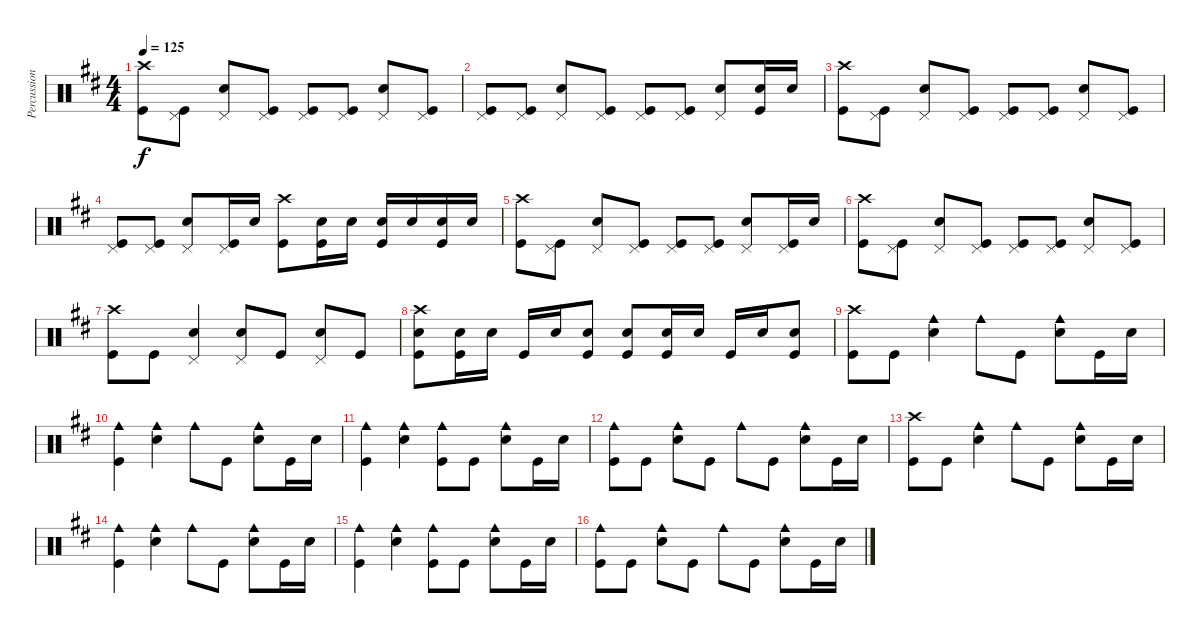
\track ("Percussion" "Percussion") {instrument percussion}
\staff {score}
\articulation defaults
\ts (4 4)
\tempo 125
\clef neutral
\ks d
("Crash high (hit)" "Kick (hit)").8{dy f} ("Pedal Hi-Hat (hit)" "Kick (hit)").8 ("Pedal Hi-Hat (hit)" "Snare (hit) 2").8 ("Pedal Hi-Hat (hit)" "Kick (hit)").8 ("Pedal Hi-Hat (hit)" "Kick (hit)").8 ("Pedal Hi-Hat (hit)" "Kick (hit)").8 ("Pedal Hi-Hat (hit)" "Snare (hit) 2").8 ("Pedal Hi-Hat (hit)" "Kick (hit)").8 |
("Pedal Hi-Hat (hit)" "Kick (hit)").8 ("Pedal Hi-Hat (hit)" "Kick (hit)").8 ("Pedal Hi-Hat (hit)" "Snare (hit) 2").8 ("Pedal Hi-Hat (hit)" "Kick (hit)").8 ("Pedal Hi-Hat (hit)" "Kick (hit)").8 ("Pedal Hi-Hat (hit)" "Kick (hit)").8 ("Pedal Hi-Hat (hit)" "Snare (hit) 2").8 ("Snare (hit) 2" "Kick (hit)").16 "Snare (hit) 2".16 |
("Crash high (hit)" "Kick (hit)").8 ("Pedal Hi-Hat (hit)" "Kick (hit)").8 ("Pedal Hi-Hat (hit)" "Snare (hit) 2").8 ("Pedal Hi-Hat (hit)" "Kick (hit)").8 ("Pedal Hi-Hat (hit)" "Kick (hit)").8 ("Pedal Hi-Hat (hit)" "Kick (hit)").8 ("Pedal Hi-Hat (hit)" "Snare (hit) 2").8 ("Pedal Hi-Hat (hit)" "Kick (hit)").8 |
("Pedal Hi-Hat (hit)" "Kick (hit)").8 ("Pedal Hi-Hat (hit)" "Kick (hit)").8 ("Pedal Hi-Hat (hit)" "Snare (hit) 2").8 ("Pedal Hi-Hat (hit)" "Kick (hit)").16 "Snare (hit) 2".16 ("Crash high (hit)" "Kick (hit)").8 ("Snare (hit) 2" "Kick (hit)").16 "Snare (hit) 2".16 ("Snare (hit) 2" "Kick (hit)").16 "Snare (hit) 2".16 ("Snare (hit) 2" "Kick (hit)").16 "Snare (hit) 2".16 |
("Crash high (hit)" "Kick (hit)").8 ("Pedal Hi-Hat (hit)" "Kick (hit)").8 ("Pedal Hi-Hat (hit)" "Snare (hit) 2").8 ("Pedal Hi-Hat (hit)" "Kick (hit)").8 ("Pedal Hi-Hat (hit)" "Kick (hit)").8 ("Pedal Hi-Hat (hit)" "Kick (hit)").8 ("Pedal Hi-Hat (hit)" "Snare (hit) 2").8 ("Pedal Hi-Hat (hit)" "Kick (hit)").16 "Snare (hit) 2".16 |
("Crash high (hit)" "Kick (hit)").8 ("Pedal Hi-Hat (hit)" "Kick (hit)").8 ("Pedal Hi-Hat (hit)" "Snare (hit) 2").8 ("Pedal Hi-Hat (hit)" "Kick (hit)").8 ("Pedal Hi-Hat (hit)" "Kick (hit)").8 ("Pedal Hi-Hat (hit)" "Kick (hit)").8 ("Pedal Hi-Hat (hit)" "Snare (hit) 2").8 ("Pedal Hi-Hat (hit)" "Kick (hit)").8 |
("Crash high (hit)" "Kick (hit)").8 "Kick (hit)".8 ("Pedal Hi-Hat (hit)" "Snare (hit) 2").4 ("Pedal Hi-Hat (hit)" "Snare (hit) 2").8 "Kick (hit)".8 ("Pedal Hi-Hat (hit)" "Snare (hit) 2").8 "Kick (hit)".8 |
("Crash high (hit)" "Snare (hit) 2" "Kick (hit)").8 ("Snare (hit) 2" "Kick (hit)").16 "Snare (hit) 2".16 "Kick (hit)".16 "Snare (hit) 2".16 ("Snare (hit) 2" "Kick (hit)").8 ("Snare (hit) 2" "Kick (hit)").8 ("Snare (hit) 2" "Kick (hit)").16 "Snare (hit) 2".16 "Kick (hit)".16 "Snare (hit) 2".16 ("Snare (hit) 2" "Kick (hit)").8 |
("Crash high (hit)" "Kick (hit)").8 "Kick (hit)".8 ("Cowbell medium (hit)" "Snare (hit) 2").4 "Cowbell medium (hit)".8 "Kick (hit)".8 ("Cowbell medium (hit)" "Snare (hit) 2").8 "Kick (hit)".16 "Snare (hit) 2".16 |
("Cowbell medium (hit)" "Kick (hit)").4 ("Cowbell medium (hit)" "Snare (hit) 2").4 "Cowbell medium (hit)".8 "Kick (hit)".8 ("Cowbell medium (hit)" "Snare (hit) 2").8 "Kick (hit)".16 "Snare (hit) 2".16 |
("Cowbell medium (hit)" "Kick (hit)").4 ("Cowbell medium (hit)" "Snare (hit) 2").4 ("Cowbell medium (hit)" "Kick (hit)").8 "Kick (hit)".8 ("Cowbell medium (hit)" "Snare (hit) 2").8 "Kick (hit)".16 "Snare (hit) 2".16 |
("Cowbell medium (hit)" "Kick (hit)").8 "Kick (hit)".8 ("Cowbell medium (hit)" "Snare (hit) 2").8 "Kick (hit)".8 "Cowbell medium (hit)".8 "Kick (hit)".8 ("Cowbell medium (hit)" "Snare (hit) 2").8 "Kick (hit)".16 "Snare (hit) 2".16 |
("Crash high (hit)" "Kick (hit)").8 "Kick (hit)".8 ("Cowbell medium (hit)" "Snare (hit) 2").4 "Cowbell medium (hit)".8 "Kick (hit)".8 ("Cowbell medium (hit)" "Snare (hit) 2").8 "Kick (hit)".16 "Snare (hit) 2".16 |
("Cowbell medium (hit)" "Kick (hit)").4 ("Cowbell medium (hit)" "Snare (hit) 2").4 "Cowbell medium (hit)".8 "Kick (hit)".8 ("Cowbell medium (hit)" "Snare (hit) 2").8 "Kick (hit)".16 "Snare (hit) 2".16 |
("Cowbell medium (hit)" "Kick (hit)").4 ("Cowbell medium (hit)" "Snare (hit) 2").4 ("Cowbell medium (hit)" "Kick (hit)").8 "Kick (hit)".8 ("Cowbell medium (hit)" "Snare (hit) 2").8 "Kick (hit)".16 "Snare (hit) 2".16 |
("Cowbell medium (hit)" "Kick (hit)").8 "Kick (hit)".8 ("Cowbell medium (hit)" "Snare (hit) 2").8 "Kick (hit)".8 "Cowbell medium (hit)".8 "Kick (hit)".8 ("Cowbell medium (hit)" "Snare (hit) 2").8 "Kick (hit)".16 "Snare (hit) 2".16
